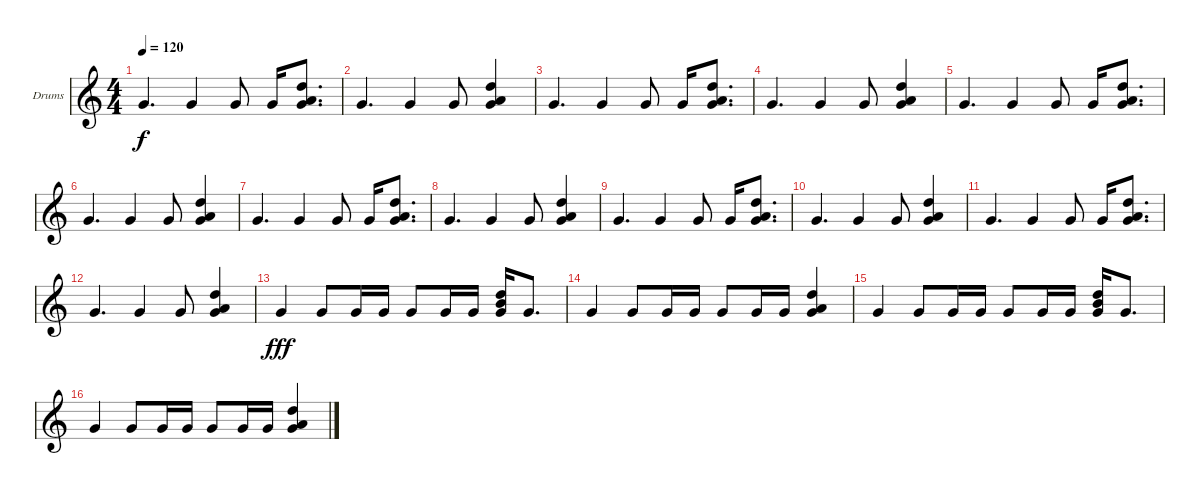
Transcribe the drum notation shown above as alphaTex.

\defaultSystemsLayout 4
\bracketExtendMode groupsimilarinstruments
\firstSystemTrackNameOrientation horizontal
\otherSystemsTrackNameOrientation horizontal
\track ("Drumkit" "Drums") {instrument percussion}
\staff {score}
\articulation defaults
\ts (4 4)
\tempo 120
\clef g2
\scale
0.333333
\ks c "Very Low Tom (hit)".4{d dy f} "Very Low Tom (hit)".4 "Very Low Tom (hit)".8 "Very Low Tom (hit)".16
("Very Low Tom (hit)" "High Tom (hit)" "Low Tom (hit)").8{d} |
\scale
0.333333 "Very Low Tom (hit)".4{d} "Very Low Tom (hit)".4 "Very Low Tom (hit)".8 ("Very Low Tom (hit)" "High Tom (hit)" "Low Tom (hit)").4 |
\scale
0.333333 "Very Low Tom (hit)".4{d} "Very Low Tom (hit)".4 "Very Low Tom (hit)".8 "Very Low Tom (hit)".16 ("Very Low Tom (hit)" "High Tom (hit)" "Low Tom (hit)").8{d} |
"Very Low Tom (hit)".4{d} "Very Low Tom (hit)".4 "Very Low Tom (hit)".8 ("Very Low Tom (hit)" "High Tom (hit)" "Low Tom (hit)").4 |
\scale
0.333333 "Very Low Tom (hit)".4{d} "Very Low Tom (hit)".4 "Very Low Tom (hit)".8 "Very Low Tom (hit)".16 ("Very Low Tom (hit)" "High Tom (hit)" "Low Tom (hit)").8{d} |
\scale
0.333333 "Very Low Tom (hit)".4{d} "Very Low Tom (hit)".4 "Very Low Tom (hit)".8 ("Very Low Tom (hit)" "High Tom (hit)" "Low Tom (hit)").4 |
\scale
0.333333 "Very Low Tom (hit)".4{d} "Very Low Tom (hit)".4 "Very Low Tom (hit)".8 "Very Low Tom (hit)".16 ("Very Low Tom (hit)" "High Tom (hit)" "Low Tom (hit)").8{d} |
\scale
0.333333 "Very Low Tom (hit)".4{d} "Very Low Tom (hit)".4 "Very Low Tom (hit)".8 ("Very Low Tom (hit)" "High Tom (hit)" "Low Tom (hit)").4 |
\scale
0.333333 "Very Low Tom (hit)".4{d} "Very Low Tom (hit)".4 "Very Low Tom (hit)".8 "Very Low Tom (hit)".16 ("Very Low Tom (hit)" "High Tom (hit)" "Low Tom (hit)").8{d} |
\scale
0.333333 "Very Low Tom (hit)".4{d} "Very Low Tom (hit)".4 "Very Low Tom (hit)".8 ("Very Low Tom (hit)" "High Tom (hit)" "Low Tom (hit)").4 |
\scale
0.333333 "Very Low Tom (hit)".4{d} "Very Low Tom (hit)".4 "Very Low Tom (hit)".8 "Very Low Tom (hit)".16 ("Very Low Tom (hit)" "High Tom (hit)" "Low Tom (hit)").8{d} |
\scale
0.333333 "Very Low Tom (hit)".4{d} "Very Low Tom (hit)".4 "Very Low Tom (hit)".8 ("Very Low Tom (hit)" "High Tom (hit)" "Low Tom (hit)").4 |
\scale
0.333333 "Very Low Tom (hit)".4{dy fff} "Very Low Tom (hit)".8 "Very Low Tom (hit)".16 "Very Low Tom (hit)".16 "Very Low Tom (hit)".8 "Very Low Tom (hit)".16 "Very Low Tom (hit)".16 ("Very Low Tom (hit)" "High Tom (hit)" "Mid Tom (hit)").16 "Very Low Tom (hit)".8{d} |
\scale
0.333333 "Very Low Tom (hit)".4 "Very Low Tom (hit)".8 "Very Low Tom (hit)".16 "Very Low Tom (hit)".16 "Very Low Tom (hit)".8 "Very Low Tom (hit)".16 "Very Low Tom (hit)".16 ("Very Low Tom (hit)" "Low Tom (hit)" "High Tom (hit)").4 |
\scale
0.333333 "Very Low Tom (hit)".4 "Very Low Tom (hit)".8 "Very Low Tom (hit)".16 "Very Low Tom (hit)".16 "Very Low Tom (hit)".8 "Very Low Tom (hit)".16 "Very Low Tom (hit)".16 ("Very Low Tom (hit)" "High Tom (hit)" "Mid Tom (hit)").16 "Very Low Tom (hit)".8{d} |
\scale
0.333333 "Very Low Tom (hit)".4 "Very Low Tom (hit)".8 "Very Low Tom (hit)".16 "Very Low Tom (hit)".16 "Very Low Tom (hit)".8 "Very Low Tom (hit)".16 "Very Low Tom (hit)".16 ("Very Low Tom (hit)" "Low Tom (hit)" "High Tom (hit)").4
